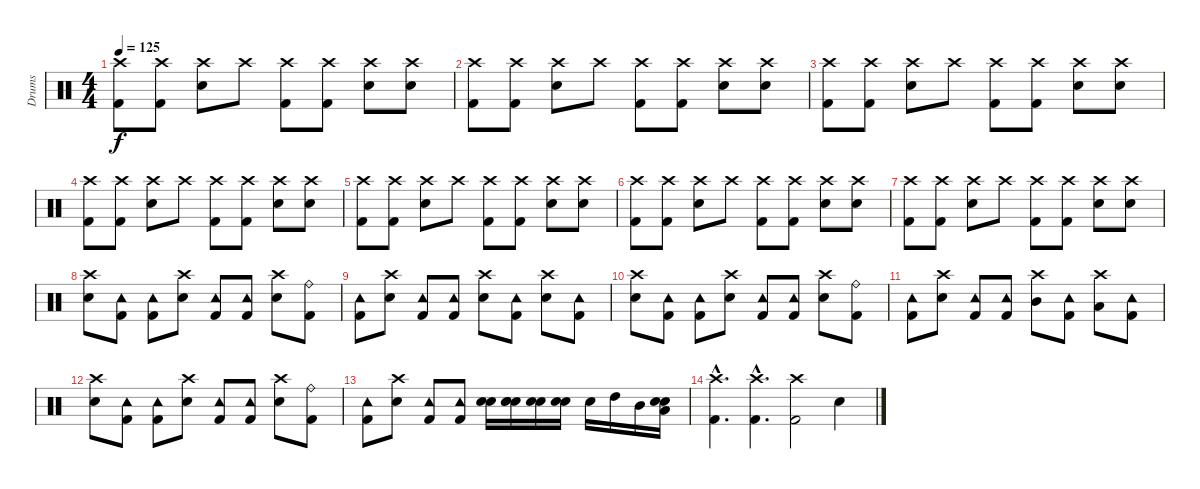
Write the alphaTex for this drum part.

\track ("Drums" "Drums") {instrument percussion}
\staff {score}
\articulation defaults
\ts (4 4)
\tempo 125
\clef neutral
\ks c
("Kick (hit) 2" "Crash high (hit)").8{dy f} ("Kick (hit) 2" "Crash high (hit)").8 ("Snare (hit) 2" "Crash high (hit)").8 "Crash high (hit)".8 ("Kick (hit) 2" "Crash high (hit)").8 ("Kick (hit) 2" "Crash high (hit)").8 ("Snare (hit) 2" "Crash high (hit)").8 ("Snare (hit)" "Crash high (hit)").8 |
("Kick (hit) 2" "Crash high (hit)").8 ("Kick (hit) 2" "Crash high (hit)").8 ("Snare (hit) 2" "Crash high (hit)").8 "Crash high (hit)".8 ("Kick (hit) 2" "Crash high (hit)").8 ("Kick (hit) 2" "Crash high (hit)").8 ("Snare (hit) 2" "Crash high (hit)").8 ("Snare (hit)" "Crash high (hit)").8 |
("Kick (hit) 2" "Crash high (hit)").8 ("Kick (hit) 2" "Crash high (hit)").8 ("Snare (hit) 2" "Crash high (hit)").8 "Crash high (hit)".8 ("Kick (hit) 2" "Crash high (hit)").8 ("Kick (hit) 2" "Crash high (hit)").8 ("Snare (hit) 2" "Crash high (hit)").8 ("Snare (hit)" "Crash high (hit)").8 |
("Kick (hit) 2" "Crash high (hit)").8 ("Kick (hit) 2" "Crash high (hit)").8 ("Snare (hit) 2" "Crash high (hit)").8 "Crash high (hit)".8 ("Kick (hit) 2" "Crash high (hit)").8 ("Kick (hit) 2" "Crash high (hit)").8 ("Snare (hit) 2" "Crash high (hit)").8 ("Snare (hit)" "Crash high (hit)").8 |
("Kick (hit) 2" "Crash high (hit)").8 ("Kick (hit) 2" "Crash high (hit)").8 ("Snare (hit) 2" "Crash high (hit)").8 "Crash high (hit)".8 ("Kick (hit) 2" "Crash high (hit)").8 ("Kick (hit) 2" "Crash high (hit)").8 ("Snare (hit) 2" "Crash high (hit)").8 ("Snare (hit)" "Crash high (hit)").8 |
("Kick (hit) 2" "Crash high (hit)").8 ("Kick (hit) 2" "Crash high (hit)").8 ("Snare (hit) 2" "Crash high (hit)").8 "Crash high (hit)".8 ("Kick (hit) 2" "Crash high (hit)").8 ("Kick (hit) 2" "Crash high (hit)").8 ("Snare (hit) 2" "Crash high (hit)").8 ("Snare (hit)" "Crash high (hit)").8 |
("Kick (hit) 2" "Crash high (hit)").8 ("Kick (hit) 2" "Crash high (hit)").8 ("Snare (hit) 2" "Crash high (hit)").8 "Crash high (hit)".8 ("Kick (hit) 2" "Crash high (hit)").8 ("Kick (hit) 2" "Crash high (hit)").8 ("Snare (hit) 2" "Crash high (hit)").8 ("Snare (hit)" "Crash high (hit)").8 |
("Snare (hit) 2" "Crash high (hit)").8 ("Kick (hit) 2" "Tambourine (hit)").8 ("Kick (hit) 2" "Tambourine (hit)").8 ("Snare (hit) 2" "Crash high (hit)").8 ("Kick (hit) 2" "Tambourine (hit)").8 ("Kick (hit) 2" "Tambourine (hit)").8 ("Snare (hit) 2" "Crash high (hit)").8 ("Kick (hit) 2" "Ride (bell)").8 |
("Kick (hit) 2" "Tambourine (hit)").8 ("Snare (hit) 2" "Crash high (hit)").8 ("Kick (hit) 2" "Tambourine (hit)").8 ("Kick (hit) 2" "Tambourine (hit)").8 ("Snare (hit) 2" "Crash high (hit)").8 ("Kick (hit) 2" "Tambourine (hit)").8 ("Snare (hit) 2" "Crash high (hit)").8 ("Kick (hit) 2" "Tambourine (hit)").8 |
("Snare (hit) 2" "Crash high (hit)").8 ("Kick (hit) 2" "Tambourine (hit)").8 ("Kick (hit) 2" "Tambourine (hit)").8 ("Snare (hit) 2" "Crash high (hit)").8 ("Kick (hit) 2" "Tambourine (hit)").8 ("Kick (hit) 2" "Tambourine (hit)").8 ("Snare (hit) 2" "Crash high (hit)").8 ("Kick (hit) 2" "Ride (bell)").8 |
("Kick (hit) 2" "Tambourine (hit)").8 ("Snare (hit) 2" "Crash high (hit)").8 ("Kick (hit) 2" "Tambourine (hit)").8 ("Kick (hit) 2" "Tambourine (hit)").8 ("Mid Tom (hit)" "Crash high (hit)").8 ("Kick (hit) 2" "Tambourine (hit)").8 ("Low Tom (hit)" "Crash high (hit)").8 ("Kick (hit) 2" "Tambourine (hit)").8 |
("Snare (hit) 2" "Crash high (hit)").8 ("Kick (hit) 2" "Tambourine (hit)").8 ("Kick (hit) 2" "Tambourine (hit)").8 ("Snare (hit) 2" "Crash high (hit)").8 ("Kick (hit) 2" "Tambourine (hit)").8 ("Kick (hit) 2" "Tambourine (hit)").8 ("Snare (hit) 2" "Crash high (hit)").8 ("Kick (hit) 2" "Ride (bell)").8 |
("Kick (hit) 2" "Tambourine (hit)").8 ("Snare (hit) 2" "Crash high (hit)").8 ("Kick (hit) 2" "Tambourine (hit)").8 ("Kick (hit) 2" "Tambourine (hit)").8 ("Snare (hit) 2" "Snare (hit)").16 ("Snare (hit)" "Snare (hit) 2" "Snare (hit)").16 ("Snare (hit) 2" "Snare (hit)").16 ("Snare (hit) 2" "Snare (hit)").16 "Snare (hit) 2".16 "High Tom (hit)".16 "Mid Tom (hit)".16 ("Snare (hit)" "Low Tom (hit)" "Snare (hit)").16 |
("Kick (hit) 2"{hac} "Crash high (hit)"{hac}).4{d} ("Kick (hit) 2"{hac} "Crash high (hit)"{hac}).4{d} ("Kick (hit) 2" "Crash high (hit)").2 "Snare (hit)".4
